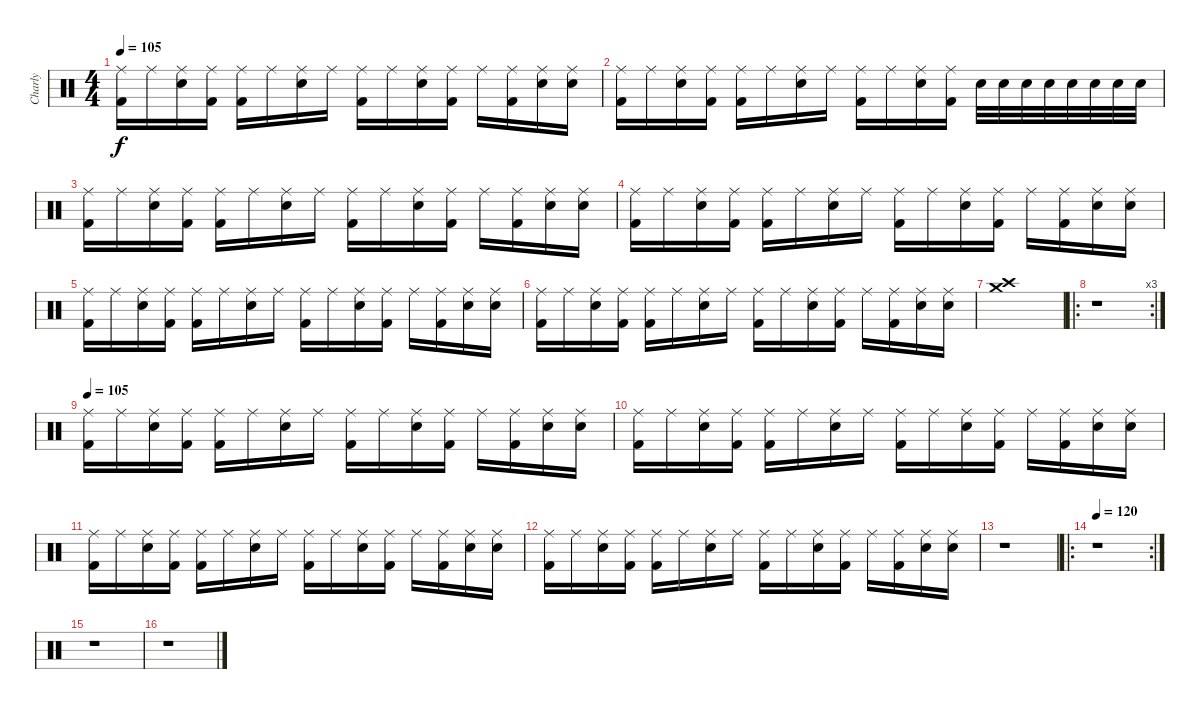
\track ("Charly" "Charly") {instrument percussion}
\staff {score}
\articulation defaults
\ts (4 4)
\tempo 105
\clef neutral
\ks c
("Ride (middle)" "Kick (hit) 2").16{dy f} "Ride (middle)".16 ("Ride (middle)" "Electric Snare (hit)").16 ("Ride (middle)" "Kick (hit) 2").16 ("Ride (middle)" "Kick (hit) 2").16 "Ride (middle)".16 ("Ride (middle)" "Electric Snare (hit)").16 "Ride (middle)".16 ("Ride (middle)" "Kick (hit) 2").16 "Ride (middle)".16 ("Ride (middle)" "Electric Snare (hit)").16 ("Ride (middle)" "Kick (hit) 2").16 "Ride (middle)".16 ("Ride (middle)" "Kick (hit) 2").16 ("Ride (middle)" "Electric Snare (hit)").16 ("Ride (middle)" "Electric Snare (hit)").16 |
("Ride (middle)" "Kick (hit) 2").16 "Ride (middle)".16 ("Ride (middle)" "Electric Snare (hit)").16 ("Ride (middle)" "Kick (hit) 2").16 ("Ride (middle)" "Kick (hit) 2").16 "Ride (middle)".16 ("Ride (middle)" "Electric Snare (hit)").16 "Ride (middle)".16 ("Ride (middle)" "Kick (hit) 2").16 "Ride (middle)".16 ("Ride (middle)" "Electric Snare (hit)").16 ("Ride (middle)" "Kick (hit) 2").16 "Electric Snare (hit)".32 "Electric Snare (hit)".32 "Electric Snare (hit)".32 "Electric Snare (hit)".32 "Electric Snare (hit)".32 "Electric Snare (hit)".32 "Electric Snare (hit)".32 "Electric Snare (hit)".32 |
("Ride (middle)" "Kick (hit) 2").16 "Ride (middle)".16 ("Ride (middle)" "Electric Snare (hit)").16 ("Ride (middle)" "Kick (hit) 2").16 ("Ride (middle)" "Kick (hit) 2").16 "Ride (middle)".16 ("Ride (middle)" "Electric Snare (hit)").16 "Ride (middle)".16 ("Ride (middle)" "Kick (hit) 2").16 "Ride (middle)".16 ("Ride (middle)" "Electric Snare (hit)").16 ("Ride (middle)" "Kick (hit) 2").16 "Ride (middle)".16 ("Ride (middle)" "Kick (hit) 2").16 ("Ride (middle)" "Electric Snare (hit)").16 ("Ride (middle)" "Electric Snare (hit)").16 |
("Ride (middle)" "Kick (hit) 2").16 "Ride (middle)".16 ("Ride (middle)" "Electric Snare (hit)").16 ("Ride (middle)" "Kick (hit) 2").16 ("Ride (middle)" "Kick (hit) 2").16 "Ride (middle)".16 ("Ride (middle)" "Electric Snare (hit)").16 "Ride (middle)".16 ("Ride (middle)" "Kick (hit) 2").16 "Ride (middle)".16 ("Ride (middle)" "Electric Snare (hit)").16 ("Ride (middle)" "Kick (hit) 2").16 "Ride (middle)".16 ("Ride (middle)" "Kick (hit) 2").16 ("Ride (middle)" "Electric Snare (hit)").16 ("Ride (middle)" "Electric Snare (hit)").16 |
("Ride (middle)" "Kick (hit) 2").16 "Ride (middle)".16 ("Ride (middle)" "Electric Snare (hit)").16 ("Ride (middle)" "Kick (hit) 2").16 ("Ride (middle)" "Kick (hit) 2").16 "Ride (middle)".16 ("Ride (middle)" "Electric Snare (hit)").16 "Ride (middle)".16 ("Ride (middle)" "Kick (hit) 2").16 "Ride (middle)".16 ("Ride (middle)" "Electric Snare (hit)").16 ("Ride (middle)" "Kick (hit) 2").16 "Ride (middle)".16 ("Ride (middle)" "Kick (hit) 2").16 ("Ride (middle)" "Electric Snare (hit)").16 ("Ride (middle)" "Electric Snare (hit)").16 |
("Ride (middle)" "Kick (hit) 2").16 "Ride (middle)".16 ("Ride (middle)" "Electric Snare (hit)").16 ("Ride (middle)" "Kick (hit) 2").16 ("Ride (middle)" "Kick (hit) 2").16 "Ride (middle)".16 ("Ride (middle)" "Electric Snare (hit)").16 "Ride (middle)".16 ("Ride (middle)" "Kick (hit) 2").16 "Ride (middle)".16 ("Ride (middle)" "Electric Snare (hit)").16 ("Ride (middle)" "Kick (hit) 2").16 "Ride (middle)".16 ("Ride (middle)" "Kick (hit) 2").16 ("Ride (middle)" "Electric Snare (hit)").16 ("Ride (middle)" "Electric Snare (hit)").16 |
("Crash medium (hit)" "Crash high (hit)").1 |
\ro
\rc 3
r.1 |
\tempo 105
("Ride (middle)" "Kick (hit) 2").16{volume 13} "Ride (middle)".16 ("Ride (middle)" "Electric Snare (hit)").16 ("Ride (middle)" "Kick (hit) 2").16 ("Ride (middle)" "Kick (hit) 2").16 "Ride (middle)".16 ("Ride (middle)" "Electric Snare (hit)").16 "Ride (middle)".16 ("Ride (middle)" "Kick (hit) 2").16 "Ride (middle)".16 ("Ride (middle)" "Electric Snare (hit)").16 ("Ride (middle)" "Kick (hit) 2").16 "Ride (middle)".16 ("Ride (middle)" "Kick (hit) 2").16 ("Ride (middle)" "Electric Snare (hit)").16 ("Ride (middle)" "Electric Snare (hit)").16 |
("Ride (middle)" "Kick (hit) 2").16 "Ride (middle)".16 ("Ride (middle)" "Electric Snare (hit)").16 ("Ride (middle)" "Kick (hit) 2").16 ("Ride (middle)" "Kick (hit) 2").16 "Ride (middle)".16 ("Ride (middle)" "Electric Snare (hit)").16 "Ride (middle)".16 ("Ride (middle)" "Kick (hit) 2").16 "Ride (middle)".16 ("Ride (middle)" "Electric Snare (hit)").16 ("Ride (middle)" "Kick (hit) 2").16 "Ride (middle)".16 ("Ride (middle)" "Kick (hit) 2").16 ("Ride (middle)" "Electric Snare (hit)").16 ("Ride (middle)" "Electric Snare (hit)").16 |
("Ride (middle)" "Kick (hit) 2").16 "Ride (middle)".16 ("Ride (middle)" "Electric Snare (hit)").16 ("Ride (middle)" "Kick (hit) 2").16 ("Ride (middle)" "Kick (hit) 2").16 "Ride (middle)".16 ("Ride (middle)" "Electric Snare (hit)").16 "Ride (middle)".16 ("Ride (middle)" "Kick (hit) 2").16 "Ride (middle)".16 ("Ride (middle)" "Electric Snare (hit)").16 ("Ride (middle)" "Kick (hit) 2").16 "Ride (middle)".16 ("Ride (middle)" "Kick (hit) 2").16 ("Ride (middle)" "Electric Snare (hit)").16 ("Ride (middle)" "Electric Snare (hit)").16 |
("Ride (middle)" "Kick (hit) 2").16 "Ride (middle)".16 ("Ride (middle)" "Electric Snare (hit)").16 ("Ride (middle)" "Kick (hit) 2").16 ("Ride (middle)" "Kick (hit) 2").16 "Ride (middle)".16 ("Ride (middle)" "Electric Snare (hit)").16 "Ride (middle)".16 ("Ride (middle)" "Kick (hit) 2").16 "Ride (middle)".16 ("Ride (middle)" "Electric Snare (hit)").16 ("Ride (middle)" "Kick (hit) 2").16 "Ride (middle)".16 ("Ride (middle)" "Kick (hit) 2").16 ("Ride (middle)" "Electric Snare (hit)").16 ("Ride (middle)" "Electric Snare (hit)").16 |
r.1 |
\ro
\rc 2
\tempo 120
r.1 |
r.1 |
r.1
